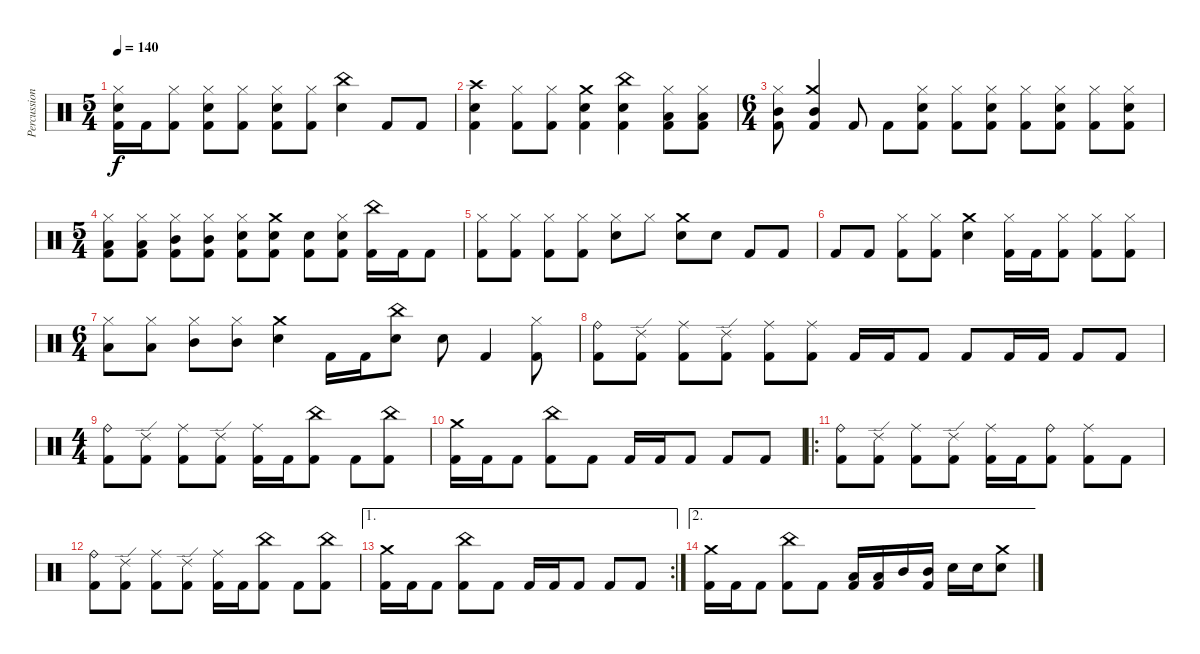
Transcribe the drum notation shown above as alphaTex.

\track ("Percussion" "Percussion") {instrument percussion}
\staff {score}
\articulation defaults
\ts (5 4)
\tempo 140
\clef neutral
\ks c
("Hi-Hat (closed)" "Electric Snare (hit)" "Kick (hit) 2").16{dy f} "Kick (hit) 2".16 ("Hi-Hat (closed)" "Kick (hit) 2").8 ("Hi-Hat (closed)" "Electric Snare (hit)" "Kick (hit) 2").8 ("Hi-Hat (closed)" "Kick (hit) 2").8 ("Hi-Hat (closed)" "Electric Snare (hit)" "Kick (hit) 2").8 ("Hi-Hat (closed)" "Kick (hit) 2").8 ("China (hit)" "Electric Snare (hit)").4 "Kick (hit) 2".8 "Kick (hit) 2".8 |
("Crash high (hit)" "Electric Snare (hit)" "Kick (hit) 2").4 ("Hi-Hat (closed)" "Kick (hit) 2").8 ("Hi-Hat (closed)" "Kick (hit) 2").8 ("Crash medium (hit)" "Electric Snare (hit)" "Kick (hit) 2").4 ("China (hit)" "Electric Snare (hit)" "Kick (hit) 2").4 ("Hi-Hat (closed)" "Low Tom (hit)" "Kick (hit) 2").8 ("Hi-Hat (closed)" "Low Tom (hit)" "Kick (hit) 2").8 |
\ts (6 4)
("Hi-Hat (closed)" "Mid Tom (hit)" "Kick (hit) 2").8 ("Crash medium (hit)" "Mid Tom (hit)" "Kick (hit) 2").4 "Kick (hit) 2".8 "Kick (hit) 2".8 ("Hi-Hat (closed)" "Electric Snare (hit)" "Kick (hit) 2").8 ("Hi-Hat (closed)" "Kick (hit) 2").8 ("Hi-Hat (closed)" "Electric Snare (hit)" "Kick (hit) 2").8 ("Hi-Hat (closed)" "Kick (hit) 2").8 ("Hi-Hat (closed)" "Electric Snare (hit)" "Kick (hit) 2").8 ("Hi-Hat (closed)" "Kick (hit) 2").8 ("Hi-Hat (closed)" "Electric Snare (hit)" "Kick (hit) 2").8 |
\ts (5 4)
("Hi-Hat (closed)" "Low Tom (hit)" "Kick (hit) 2").8 ("Hi-Hat (closed)" "Low Tom (hit)" "Kick (hit) 2").8 ("Hi-Hat (closed)" "Mid Tom (hit)" "Kick (hit) 2").8 ("Hi-Hat (closed)" "Mid Tom (hit)" "Kick (hit) 2").8 ("Hi-Hat (closed)" "Electric Snare (hit)" "Kick (hit) 2").8 ("Crash medium (hit)" "Electric Snare (hit)" "Kick (hit) 2").8 ("Electric Snare (hit)" "Kick (hit) 2").8 ("Hi-Hat (closed)" "Electric Snare (hit)" "Kick (hit) 2").8 ("China (hit)" "Kick (hit) 2").16 "Kick (hit) 2".16 "Kick (hit) 2".8 |
("Hi-Hat (closed)" "Kick (hit) 2").8 ("Hi-Hat (closed)" "Kick (hit) 2").8 ("Hi-Hat (closed)" "Kick (hit) 2").8 ("Hi-Hat (closed)" "Kick (hit) 2").8 ("Hi-Hat (closed)" "Electric Snare (hit)").8 "Hi-Hat (closed)".8 ("Crash medium (hit)" "Electric Snare (hit)").8 "Electric Snare (hit)".8 "Kick (hit) 2".8 "Kick (hit) 2".8 |
"Kick (hit) 2".8 "Kick (hit) 2".8 ("Hi-Hat (closed)" "Kick (hit) 2").8 ("Hi-Hat (closed)" "Kick (hit) 2").8 ("Crash medium (hit)" "Electric Snare (hit)").4 ("Hi-Hat (closed)" "Kick (hit) 2").16 "Kick (hit) 2".16 ("Hi-Hat (closed)" "Kick (hit) 2").8 ("Hi-Hat (closed)" "Kick (hit) 2").8 ("Hi-Hat (closed)" "Kick (hit) 2").8 |
\ts (6 4)
("Hi-Hat (closed)" "Low Tom (hit)").8 ("Hi-Hat (closed)" "Low Tom (hit)").8 ("Hi-Hat (closed)" "Mid Tom (hit)").8 ("Hi-Hat (closed)" "Mid Tom (hit)").8 ("Crash medium (hit)" "Electric Snare (hit)").4 "Kick (hit) 2".16 "Kick (hit) 2".16 ("China (hit)" "Electric Snare (hit)").8 "Electric Snare (hit)".8 "Kick (hit) 2".4 ("Hi-Hat (closed)" "Kick (hit) 2").8 |
("Ride (bell)" "Kick (hit) 2").8 ("Ride (edge) 2" "Kick (hit) 2").8 ("Ride (middle)" "Kick (hit) 2").8 ("Ride (edge) 2" "Kick (hit) 2").8 ("Ride (middle)" "Kick (hit) 2").8 ("Ride (middle)" "Kick (hit) 2").8 "Kick (hit) 2".16 "Kick (hit) 2".16 "Kick (hit) 2".8 "Kick (hit) 2".8 "Kick (hit) 2".16 "Kick (hit) 2".16 "Kick (hit) 2".8 "Kick (hit) 2".8 |
\ts (4 4)
("Ride (bell)" "Kick (hit) 2").8 ("Ride (edge) 2" "Kick (hit) 2").8 ("Ride (middle)" "Kick (hit) 2").8 ("Ride (edge) 2" "Kick (hit) 2").8 ("Ride (middle)" "Kick (hit) 2").16 "Kick (hit) 2".16 ("China (hit)" "Kick (hit) 2").8 "Kick (hit) 2".8 ("China (hit)" "Kick (hit) 2").8 |
("Crash medium (hit)" "Kick (hit) 2").16 "Kick (hit) 2".16 "Kick (hit) 2".8 ("China (hit)" "Kick (hit) 2").8 "Kick (hit) 2".8 "Kick (hit) 2".16 "Kick (hit) 2".16 "Kick (hit) 2".8 "Kick (hit) 2".8 "Kick (hit) 2".8 |
\ro
("Ride (bell)" "Kick (hit) 2").8 ("Ride (edge) 2" "Kick (hit) 2").8 ("Ride (middle)" "Kick (hit) 2").8 ("Ride (edge) 2" "Kick (hit) 2").8 ("Ride (middle)" "Kick (hit) 2").16 "Kick (hit) 2".16 ("Ride (bell)" "Kick (hit) 2").8 ("Ride (middle)" "Kick (hit) 2").8 "Kick (hit) 2".8 |
("Ride (bell)" "Kick (hit) 2").8 ("Ride (edge) 2" "Kick (hit) 2").8 ("Ride (middle)" "Kick (hit) 2").8 ("Ride (edge) 2" "Kick (hit) 2").8 ("Ride (middle)" "Kick (hit) 2").16 "Kick (hit) 2".16 ("China (hit)" "Kick (hit) 2").8 "Kick (hit) 2".8 ("China (hit)" "Kick (hit) 2").8 |
\ae 1
\rc 2
("Crash medium (hit)" "Kick (hit) 2").16 "Kick (hit) 2".16 "Kick (hit) 2".8 ("China (hit)" "Kick (hit) 2").8 "Kick (hit) 2".8 "Kick (hit) 2".16 "Kick (hit) 2".16 "Kick (hit) 2".8 "Kick (hit) 2".8 "Kick (hit) 2".8 |
\ae 2
("Crash medium (hit)" "Kick (hit) 2").16 "Kick (hit) 2".16 "Kick (hit) 2".8 ("China (hit)" "Kick (hit) 2").8 "Kick (hit) 2".8 ("Low Tom (hit)" "Kick (hit) 2").16 ("Low Tom (hit)" "Kick (hit) 2").16 "Mid Tom (hit)".16 ("Mid Tom (hit)" "Kick (hit) 2").16 "Electric Snare (hit)".16 "Electric Snare (hit)".16 ("Crash medium (hit)" "Electric Snare (hit)").8
